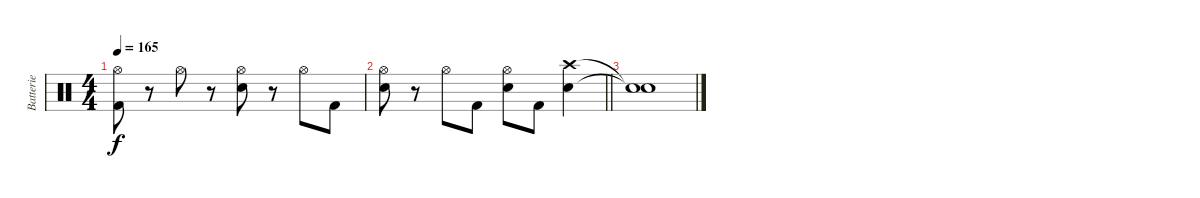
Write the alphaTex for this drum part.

\track ("Batterie" "Batterie") {instrument percussion}
\staff {score}
\articulation defaults
\ts (4 4)
\tempo 165
\clef neutral
\ks c
("Hi-Hat (open)" "Kick (hit) 2").8{dy f} r.8 "Hi-Hat (open)".8 r.8 ("Hi-Hat (open)" "Electric Snare (hit)").8 r.8 "Hi-Hat (open)".8 "Kick (hit) 2".8 |
\barLineRight lightlight
("Hi-Hat (open)" "Electric Snare (hit)").8 r.8 "Hi-Hat (open)".8 "Kick (hit) 2".8 ("Hi-Hat (open)" "Electric Snare (hit)").8 "Kick (hit) 2".8 ("Crash high (hit)" "Electric Snare (hit)").4 |
("Snare (hit)"{t} "Snare (hit)"{t}).1
